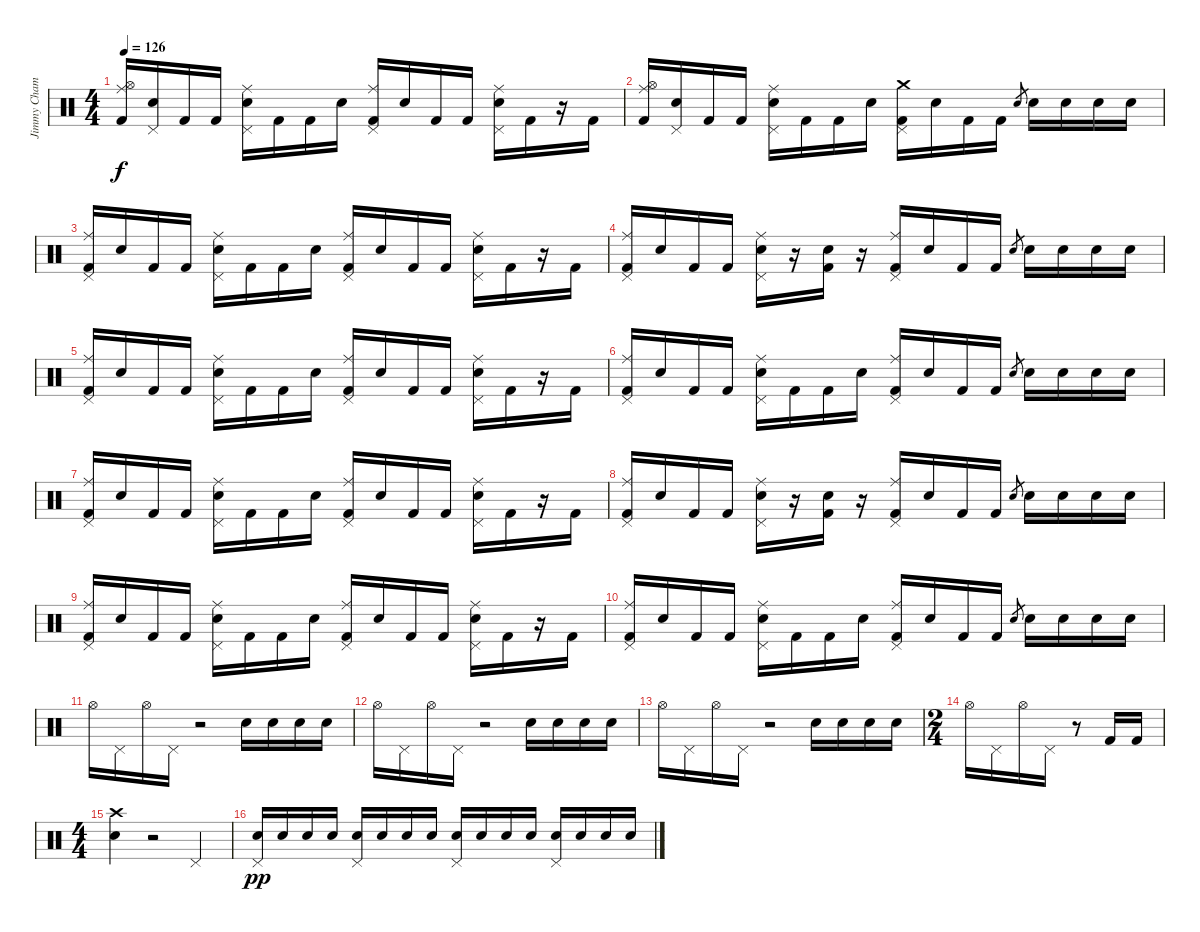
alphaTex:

\track ("Jimmy Chamberlain" "Jimmy Cham") {instrument percussion}
\staff {score}
\articulation defaults
\ts (4 4)
\tempo 126
\clef neutral
\ks c
("Ride (middle)" "Hi-Hat (open)" "Kick (hit) 2").16{dy f} ("Pedal Hi-Hat (hit)" "Snare (hit) 2").16 "Kick (hit) 2".16 "Kick (hit) 2".16 ("Ride (middle)" "Pedal Hi-Hat (hit)" "Snare (hit) 2").16 "Kick (hit) 2".16 "Kick (hit) 2".16 "Snare (hit) 2".16 ("Ride (middle)" "Pedal Hi-Hat (hit)" "Kick (hit) 2").16 "Snare (hit) 2".16 "Kick (hit) 2".16 "Kick (hit) 2".16 ("Ride (middle)" "Pedal Hi-Hat (hit)" "Snare (hit) 2").16 "Kick (hit) 2".16 r.16 "Kick (hit) 2".16 |
("Ride (middle)" "Hi-Hat (open)" "Kick (hit) 2").16 ("Pedal Hi-Hat (hit)" "Snare (hit) 2").16 "Kick (hit) 2".16 "Kick (hit) 2".16 ("Ride (middle)" "Pedal Hi-Hat (hit)" "Snare (hit) 2").16 "Kick (hit) 2".16 "Kick (hit) 2".16 "Snare (hit) 2".16 ("Crash medium (hit)" "Pedal Hi-Hat (hit)" "Kick (hit) 2").16 "Snare (hit) 2".16 "Kick (hit) 2".16 "Kick (hit) 2".16 "Snare (hit) 2".8{gr} "Snare (hit) 2".16 "Snare (hit) 2".16 "Snare (hit) 2".16 "Snare (hit) 2".16 |
("Ride (middle)" "Pedal Hi-Hat (hit)" "Kick (hit) 2").16 "Snare (hit) 2".16 "Kick (hit) 2".16 "Kick (hit) 2".16 ("Ride (middle)" "Pedal Hi-Hat (hit)" "Snare (hit) 2").16 "Kick (hit) 2".16 "Kick (hit) 2".16 "Snare (hit) 2".16 ("Ride (middle)" "Pedal Hi-Hat (hit)" "Kick (hit) 2").16 "Snare (hit) 2".16 "Kick (hit) 2".16 "Kick (hit) 2".16 ("Ride (middle)" "Pedal Hi-Hat (hit)" "Snare (hit) 2").16 "Kick (hit) 2".16 r.16 "Kick (hit) 2".16 |
("Ride (middle)" "Pedal Hi-Hat (hit)" "Kick (hit) 2").16 "Snare (hit) 2".16 "Kick (hit) 2".16 "Kick (hit) 2".16 ("Ride (middle)" "Pedal Hi-Hat (hit)" "Snare (hit) 2").16 r.16 ("Snare (hit) 2" "Kick (hit) 2").16 r.16 ("Ride (middle)" "Pedal Hi-Hat (hit)" "Kick (hit) 2").16 "Snare (hit) 2".16 "Kick (hit) 2".16 "Kick (hit) 2".16 "Snare (hit) 2".8{gr} "Snare (hit) 2".16 "Snare (hit) 2".16 "Snare (hit) 2".16 "Snare (hit) 2".16 |
("Ride (middle)" "Pedal Hi-Hat (hit)" "Kick (hit) 2").16 "Snare (hit) 2".16 "Kick (hit) 2".16 "Kick (hit) 2".16 ("Ride (middle)" "Pedal Hi-Hat (hit)" "Snare (hit) 2").16 "Kick (hit) 2".16 "Kick (hit) 2".16 "Snare (hit) 2".16 ("Ride (middle)" "Pedal Hi-Hat (hit)" "Kick (hit) 2").16 "Snare (hit) 2".16 "Kick (hit) 2".16 "Kick (hit) 2".16 ("Ride (middle)" "Pedal Hi-Hat (hit)" "Snare (hit) 2").16 "Kick (hit) 2".16 r.16 "Kick (hit) 2".16 |
("Ride (middle)" "Pedal Hi-Hat (hit)" "Kick (hit) 2").16 "Snare (hit) 2".16 "Kick (hit) 2".16 "Kick (hit) 2".16 ("Ride (middle)" "Pedal Hi-Hat (hit)" "Snare (hit) 2").16 "Kick (hit) 2".16 "Kick (hit) 2".16 "Snare (hit) 2".16 ("Ride (middle)" "Pedal Hi-Hat (hit)" "Kick (hit) 2").16 "Snare (hit) 2".16 "Kick (hit) 2".16 "Kick (hit) 2".16 "Snare (hit) 2".8{gr} "Snare (hit) 2".16 "Snare (hit) 2".16 "Snare (hit) 2".16 "Snare (hit) 2".16 |
("Ride (middle)" "Pedal Hi-Hat (hit)" "Kick (hit) 2").16 "Snare (hit) 2".16 "Kick (hit) 2".16 "Kick (hit) 2".16 ("Ride (middle)" "Pedal Hi-Hat (hit)" "Snare (hit) 2").16 "Kick (hit) 2".16 "Kick (hit) 2".16 "Snare (hit) 2".16 ("Ride (middle)" "Pedal Hi-Hat (hit)" "Kick (hit) 2").16 "Snare (hit) 2".16 "Kick (hit) 2".16 "Kick (hit) 2".16 ("Ride (middle)" "Pedal Hi-Hat (hit)" "Snare (hit) 2").16 "Kick (hit) 2".16 r.16 "Kick (hit) 2".16 |
("Ride (middle)" "Pedal Hi-Hat (hit)" "Kick (hit) 2").16 "Snare (hit) 2".16 "Kick (hit) 2".16 "Kick (hit) 2".16 ("Ride (middle)" "Pedal Hi-Hat (hit)" "Snare (hit) 2").16 r.16 ("Snare (hit) 2" "Kick (hit) 2").16 r.16 ("Ride (middle)" "Pedal Hi-Hat (hit)" "Kick (hit) 2").16 "Snare (hit) 2".16 "Kick (hit) 2".16 "Kick (hit) 2".16 "Snare (hit) 2".8{gr} "Snare (hit) 2".16 "Snare (hit) 2".16 "Snare (hit) 2".16 "Snare (hit) 2".16 |
("Ride (middle)" "Pedal Hi-Hat (hit)" "Kick (hit) 2").16 "Snare (hit) 2".16 "Kick (hit) 2".16 "Kick (hit) 2".16 ("Ride (middle)" "Pedal Hi-Hat (hit)" "Snare (hit) 2").16 "Kick (hit) 2".16 "Kick (hit) 2".16 "Snare (hit) 2".16 ("Ride (middle)" "Pedal Hi-Hat (hit)" "Kick (hit) 2").16 "Snare (hit) 2".16 "Kick (hit) 2".16 "Kick (hit) 2".16 ("Ride (middle)" "Pedal Hi-Hat (hit)" "Snare (hit) 2").16 "Kick (hit) 2".16 r.16 "Kick (hit) 2".16 |
("Ride (middle)" "Pedal Hi-Hat (hit)" "Kick (hit) 2").16 "Snare (hit) 2".16 "Kick (hit) 2".16 "Kick (hit) 2".16 ("Ride (middle)" "Pedal Hi-Hat (hit)" "Snare (hit) 2").16 "Kick (hit) 2".16 "Kick (hit) 2".16 "Snare (hit) 2".16 ("Ride (middle)" "Pedal Hi-Hat (hit)" "Kick (hit) 2").16 "Snare (hit) 2".16 "Kick (hit) 2".16 "Kick (hit) 2".16 "Snare (hit) 2".8{gr} "Snare (hit) 2".16 "Snare (hit) 2".16 "Snare (hit) 2".16 "Snare (hit) 2".16 |
"Hi-Hat (open)".16 "Pedal Hi-Hat (hit)".16 "Hi-Hat (open)".16 "Pedal Hi-Hat (hit)".16 r.2 "Snare (hit) 2".16 "Snare (hit) 2".16 "Snare (hit) 2".16 "Snare (hit) 2".16 |
"Hi-Hat (open)".16 "Pedal Hi-Hat (hit)".16 "Hi-Hat (open)".16 "Pedal Hi-Hat (hit)".16 r.2 "Snare (hit) 2".16 "Snare (hit) 2".16 "Snare (hit) 2".16 "Snare (hit) 2".16 |
"Hi-Hat (open)".16 "Pedal Hi-Hat (hit)".16 "Hi-Hat (open)".16 "Pedal Hi-Hat (hit)".16 r.2 "Snare (hit) 2".16 "Snare (hit) 2".16 "Snare (hit) 2".16 "Snare (hit) 2".16 |
\ts (2 4)
"Hi-Hat (open)".16 "Pedal Hi-Hat (hit)".16 "Hi-Hat (open)".16 "Pedal Hi-Hat (hit)".16 r.8 "Kick (hit) 2".16 "Kick (hit) 2".16 |
\ts (4 4)
("Crash high (hit)" "Snare (hit) 2").4 r.2 "Pedal Hi-Hat (hit)".4 |
("Pedal Hi-Hat (hit)" "Snare (hit) 2").16{dy pp} "Snare (hit) 2".16 "Snare (hit) 2".16 "Snare (hit) 2".16 ("Pedal Hi-Hat (hit)" "Snare (hit) 2").16 "Snare (hit) 2".16 "Snare (hit) 2".16 "Snare (hit) 2".16 ("Pedal Hi-Hat (hit)" "Snare (hit) 2").16 "Snare (hit) 2".16 "Snare (hit) 2".16 "Snare (hit) 2".16 ("Pedal Hi-Hat (hit)" "Snare (hit) 2").16 "Snare (hit) 2".16 "Snare (hit) 2".16 "Snare (hit) 2".16
